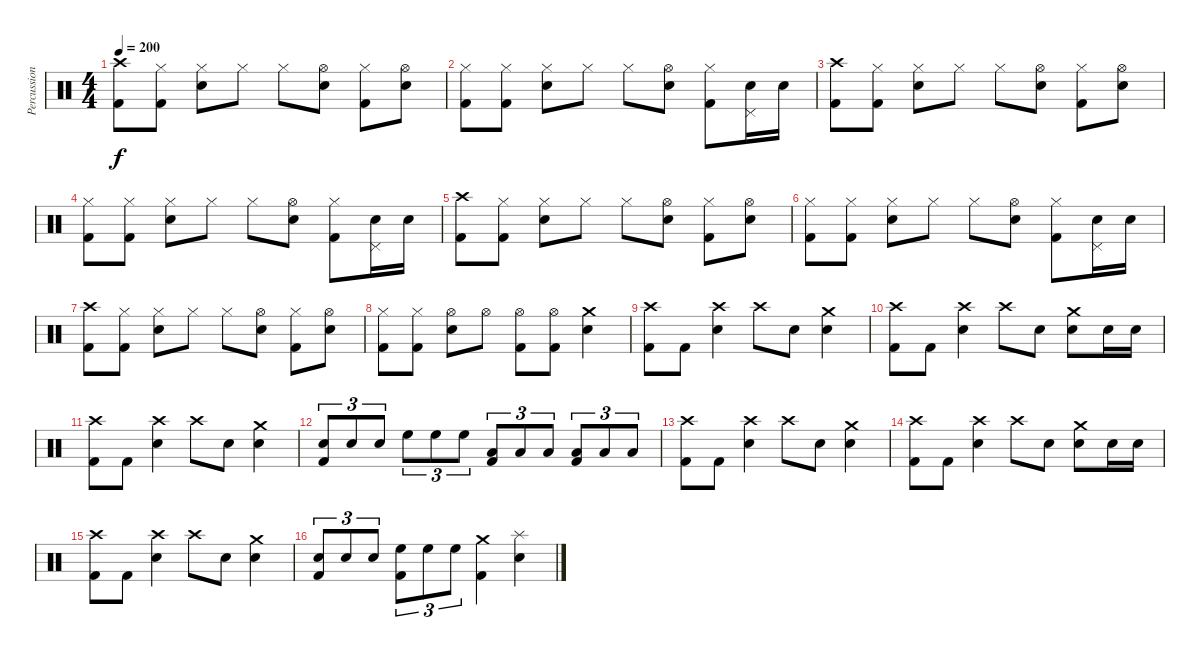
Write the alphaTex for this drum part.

\track ("Percussion" "Percussion") {instrument percussion}
\staff {score}
\articulation defaults
\ts (4 4)
\tempo 200
\clef neutral
\ks c
("Crash high (hit)" "Kick (hit) 2").8{dy f} ("Hi-Hat (closed)" "Kick (hit) 2").8 ("Hi-Hat (closed)" "Snare (hit) 2").8 "Hi-Hat (closed)".8 "Hi-Hat (closed)".8 ("Hi-Hat (open)" "Snare (hit) 2").8 ("Hi-Hat (closed)" "Kick (hit) 2").8 ("Hi-Hat (open)" "Snare (hit) 2").8 |
("Hi-Hat (closed)" "Kick (hit) 2").8 ("Hi-Hat (closed)" "Kick (hit) 2").8 ("Hi-Hat (closed)" "Snare (hit) 2").8 "Hi-Hat (closed)".8 "Hi-Hat (closed)".8 ("Hi-Hat (open)" "Snare (hit) 2").8 ("Hi-Hat (closed)" "Kick (hit) 2").8 ("Pedal Hi-Hat (hit)" "Snare (hit) 2").16 "Snare (hit) 2".16 |
("Crash high (hit)" "Kick (hit) 2").8 ("Hi-Hat (closed)" "Kick (hit) 2").8 ("Hi-Hat (closed)" "Snare (hit) 2").8 "Hi-Hat (closed)".8 "Hi-Hat (closed)".8 ("Hi-Hat (open)" "Snare (hit) 2").8 ("Hi-Hat (closed)" "Kick (hit) 2").8 ("Hi-Hat (open)" "Snare (hit) 2").8 |
("Hi-Hat (closed)" "Kick (hit) 2").8 ("Hi-Hat (closed)" "Kick (hit) 2").8 ("Hi-Hat (closed)" "Snare (hit) 2").8 "Hi-Hat (closed)".8 "Hi-Hat (closed)".8 ("Hi-Hat (open)" "Snare (hit) 2").8 ("Hi-Hat (closed)" "Kick (hit) 2").8 ("Pedal Hi-Hat (hit)" "Snare (hit) 2").16 "Snare (hit) 2".16 |
("Crash high (hit)" "Kick (hit) 2").8 ("Hi-Hat (closed)" "Kick (hit) 2").8 ("Hi-Hat (closed)" "Snare (hit) 2").8 "Hi-Hat (closed)".8 "Hi-Hat (closed)".8 ("Hi-Hat (open)" "Snare (hit) 2").8 ("Hi-Hat (closed)" "Kick (hit) 2").8 ("Hi-Hat (open)" "Snare (hit) 2").8 |
("Hi-Hat (closed)" "Kick (hit) 2").8 ("Hi-Hat (closed)" "Kick (hit) 2").8 ("Hi-Hat (closed)" "Snare (hit) 2").8 "Hi-Hat (closed)".8 "Hi-Hat (closed)".8 ("Hi-Hat (open)" "Snare (hit) 2").8 ("Hi-Hat (closed)" "Kick (hit) 2").8 ("Pedal Hi-Hat (hit)" "Snare (hit) 2").16 "Snare (hit) 2".16 |
("Crash high (hit)" "Kick (hit) 2").8 ("Hi-Hat (closed)" "Kick (hit) 2").8 ("Hi-Hat (closed)" "Snare (hit) 2").8 "Hi-Hat (closed)".8 "Hi-Hat (closed)".8 ("Hi-Hat (open)" "Snare (hit) 2").8 ("Hi-Hat (closed)" "Kick (hit) 2").8 ("Hi-Hat (open)" "Snare (hit) 2").8 |
("Hi-Hat (closed)" "Kick (hit) 2").8 ("Hi-Hat (closed)" "Kick (hit) 2").8 ("Hi-Hat (open)" "Snare (hit) 2").8 "Hi-Hat (open)".8 ("Hi-Hat (open)" "Kick (hit) 2").8 ("Hi-Hat (open)" "Kick (hit) 2").8 ("Crash medium (hit)" "Snare (hit) 2").4 |
("Crash high (hit)" "Kick (hit) 2").8 "Kick (hit) 2".8 ("Crash high (hit)" "Snare (hit) 2").4 "Crash high (hit)".8 "Snare (hit) 2".8 ("Crash medium (hit)" "Snare (hit) 2").4 |
("Crash high (hit)" "Kick (hit) 2").8 "Kick (hit) 2".8 ("Crash high (hit)" "Snare (hit) 2").4 "Crash high (hit)".8 "Snare (hit) 2".8 ("Crash medium (hit)" "Snare (hit) 2").8 "Snare (hit) 2".16 "Snare (hit) 2".16 |
("Crash high (hit)" "Kick (hit) 2").8 "Kick (hit) 2".8 ("Crash high (hit)" "Snare (hit) 2").4 "Crash high (hit)".8 "Snare (hit) 2".8 ("Crash medium (hit)" "Snare (hit) 2").4 |
("Snare (hit) 2" "Kick (hit) 2").8{tu (3 2)} "Snare (hit) 2".8{tu (3 2)} "Snare (hit) 2".8{tu (3 2)} "High Floor Tom (hit)".8{tu (3 2)} "High Floor Tom (hit)".8{tu (3 2)} "High Floor Tom (hit)".8{tu (3 2)} ("Low Tom (hit)" "Kick (hit) 2").8{tu (3 2)} "Low Tom (hit)".8{tu (3 2)} "Low Tom (hit)".8{tu (3 2)} ("Low Floor Tom (hit)" "Kick (hit) 2").8{tu (3 2)} "Low Floor Tom (hit)".8{tu (3 2)} "Low Floor Tom (hit)".8{tu (3 2)} |
("Crash high (hit)" "Kick (hit) 2").8 "Kick (hit) 2".8 ("Crash high (hit)" "Snare (hit) 2").4 "Crash high (hit)".8 "Snare (hit) 2".8 ("Crash medium (hit)" "Snare (hit) 2").4 |
("Crash high (hit)" "Kick (hit) 2").8 "Kick (hit) 2".8 ("Crash high (hit)" "Snare (hit) 2").4 "Crash high (hit)".8 "Snare (hit) 2".8 ("Crash medium (hit)" "Snare (hit) 2").8 "Snare (hit) 2".16 "Snare (hit) 2".16 |
("Crash high (hit)" "Kick (hit) 2").8 "Kick (hit) 2".8 ("Crash high (hit)" "Snare (hit) 2").4 "Crash high (hit)".8 "Snare (hit) 2".8 ("Crash medium (hit)" "Snare (hit) 2").4 |
("Snare (hit) 2" "Kick (hit) 2").8{tu (3 2)} "Snare (hit) 2".8{tu (3 2)} "Snare (hit) 2".8{tu (3 2)} ("High Floor Tom (hit)" "Kick (hit) 2").8{tu (3 2)} "High Floor Tom (hit)".8{tu (3 2)} "High Floor Tom (hit)".8{tu (3 2)} ("Crash medium (hit)" "Kick (hit) 2").4 ("Splash (hit)" "Snare (hit) 2").4
